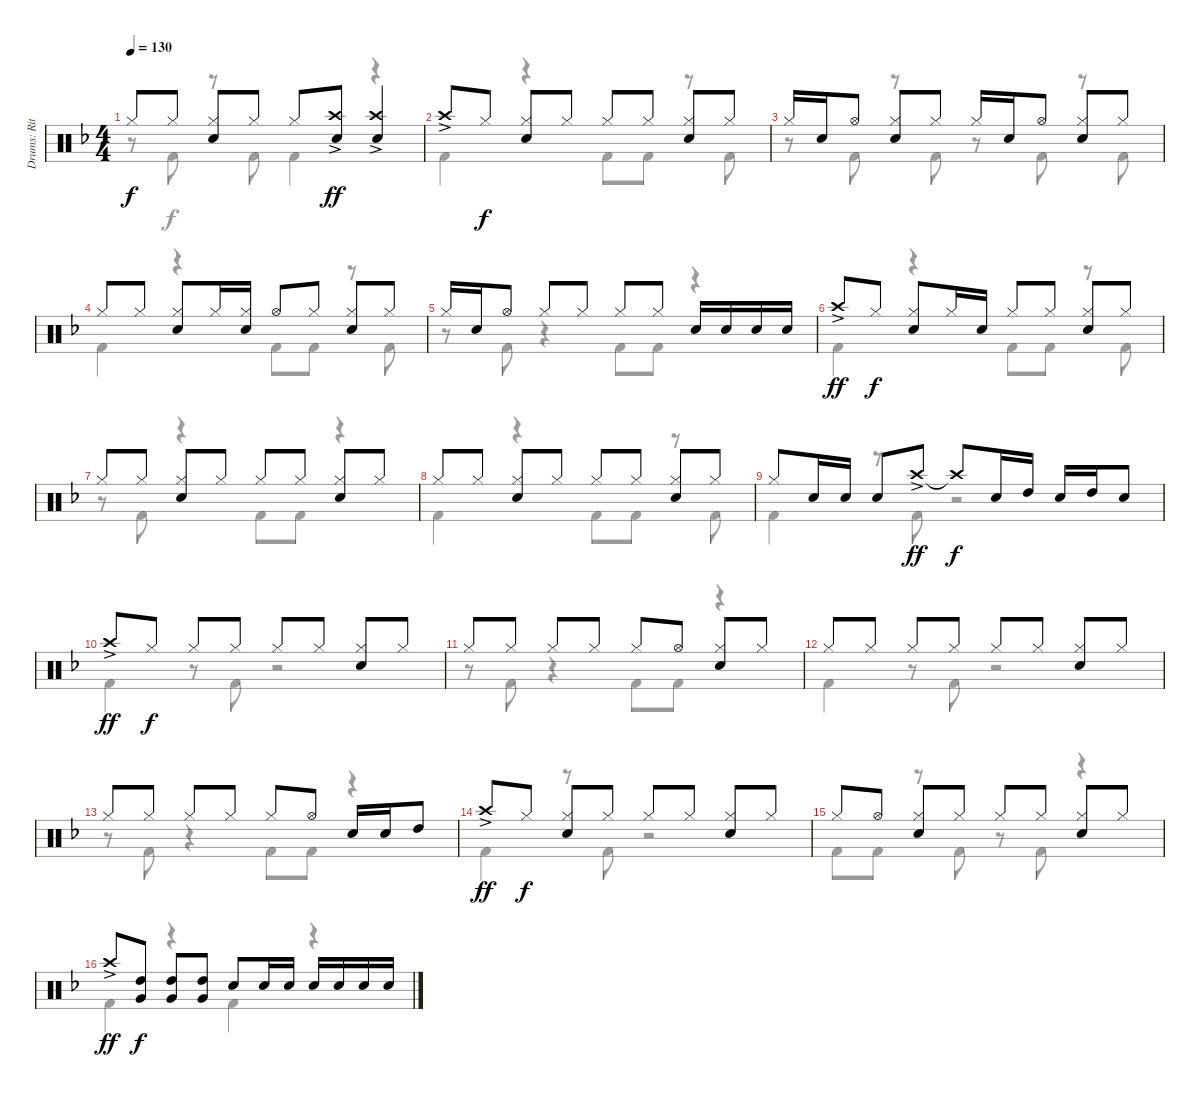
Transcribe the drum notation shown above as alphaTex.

\track ("Drums: Ritsu Tianaka" "Drums: Rit") {instrument percussion}
\staff {score}
\articulation defaults
\voice
\ts (4 4)
\tempo 130
\clef neutral
\ks f "Hi-Hat (closed)".8{dy f} "Hi-Hat (closed)".8
("Hi-Hat (closed)" "Electric Snare (hit)").8 "Hi-Hat (closed)".8 "Hi-Hat (closed)".8 ("Crash high (hit)"{ac} "Electric Snare (hit)").8{dy ff} ("Crash high (hit)"{ac} "Electric Snare (hit)").4 |
"Crash high (hit)"{ac}.8 "Hi-Hat (closed)".8{dy f} ("Hi-Hat (closed)" "Electric Snare (hit)").8 "Hi-Hat (closed)".8 "Hi-Hat (closed)".8 "Hi-Hat (closed)".8 ("Hi-Hat (closed)" "Electric Snare (hit)").8 "Hi-Hat (closed)".8 |
"Hi-Hat (closed)".16 "Electric Snare (hit)".16 "Hi-Hat (open)".8 ("Hi-Hat (closed)" "Electric Snare (hit)").8 "Hi-Hat (closed)".8 "Hi-Hat (closed)".16 "Electric Snare (hit)".16 "Hi-Hat (open)".8 ("Hi-Hat (closed)" "Electric Snare (hit)").8 "Hi-Hat (closed)".8 |
"Hi-Hat (closed)".8 "Hi-Hat (closed)".8 ("Hi-Hat (closed)" "Electric Snare (hit)").8 "Hi-Hat (closed)".16 ("Hi-Hat (closed)" "Electric Snare (hit)").16 "Hi-Hat (open)".8 "Hi-Hat (closed)".8 ("Hi-Hat (closed)" "Electric Snare (hit)").8 "Hi-Hat (closed)".8 |
"Hi-Hat (closed)".16 "Electric Snare (hit)".16 "Hi-Hat (open)".8 "Hi-Hat (closed)".8 "Hi-Hat (closed)".8 "Hi-Hat (closed)".8 "Hi-Hat (closed)".8 "Electric Snare (hit)".16 "Electric Snare (hit)".16 "Electric Snare (hit)".16 "Electric Snare (hit)".16 |
"Crash high (hit)"{ac}.8{dy ff} "Hi-Hat (closed)".8{dy f} ("Hi-Hat (closed)" "Electric Snare (hit)").8 "Hi-Hat (closed)".16 "Electric Snare (hit)".16 "Hi-Hat (closed)".8 "Hi-Hat (closed)".8 ("Hi-Hat (closed)" "Electric Snare (hit)").8 "Hi-Hat (closed)".8 |
"Hi-Hat (closed)".8 "Hi-Hat (closed)".8 ("Hi-Hat (closed)" "Electric Snare (hit)").8 "Hi-Hat (closed)".8 "Hi-Hat (closed)".8 "Hi-Hat (closed)".8 ("Hi-Hat (closed)" "Electric Snare (hit)").8 "Hi-Hat (closed)".8 |
"Hi-Hat (closed)".8 "Hi-Hat (closed)".8 ("Hi-Hat (closed)" "Electric Snare (hit)").8 "Hi-Hat (closed)".8 "Hi-Hat (closed)".8 "Hi-Hat (closed)".8 ("Hi-Hat (closed)" "Electric Snare (hit)").8 "Hi-Hat (closed)".8 |
"Hi-Hat (closed)".8 "Electric Snare (hit)".16 "Electric Snare (hit)".16 "Electric Snare (hit)".8 "Crash high (hit)"{ac}.8{dy ff} "Crash high (hit)"{t}.8{dy f} "Electric Snare (hit)".16 "High Tom (hit)".16 "Electric Snare (hit)".16 "High Tom (hit)".16 "Electric Snare (hit)".8 |
"Crash high (hit)"{ac}.8{dy ff} "Hi-Hat (closed)".8{dy f} "Hi-Hat (closed)".8 "Hi-Hat (closed)".8 "Hi-Hat (closed)".8 "Hi-Hat (closed)".8 ("Hi-Hat (closed)" "Electric Snare (hit)").8 "Hi-Hat (closed)".8 |
"Hi-Hat (closed)".8 "Hi-Hat (closed)".8 "Hi-Hat (closed)".8 "Hi-Hat (closed)".8 "Hi-Hat (closed)".8 "Hi-Hat (open)".8 ("Hi-Hat (closed)" "Electric Snare (hit)").8 "Hi-Hat (closed)".8 |
"Hi-Hat (closed)".8 "Hi-Hat (closed)".8 "Hi-Hat (closed)".8 "Hi-Hat (closed)".8 "Hi-Hat (closed)".8 "Hi-Hat (closed)".8 ("Hi-Hat (closed)" "Electric Snare (hit)").8 "Hi-Hat (closed)".8 |
"Hi-Hat (closed)".8 "Hi-Hat (closed)".8 "Hi-Hat (closed)".8 "Hi-Hat (closed)".8 "Hi-Hat (closed)".8 "Hi-Hat (open)".8 "Electric Snare (hit)".16 "Electric Snare (hit)".16 "High Tom (hit)".8 |
"Crash high (hit)"{ac}.8{dy ff} "Hi-Hat (closed)".8{dy f} ("Hi-Hat (closed)" "Electric Snare (hit)").8 "Hi-Hat (closed)".8 "Hi-Hat (closed)".8 "Hi-Hat (closed)".8 ("Hi-Hat (closed)" "Electric Snare (hit)").8 "Hi-Hat (closed)".8 |
"Hi-Hat (closed)".8 "Hi-Hat (open)".8 ("Hi-Hat (closed)" "Electric Snare (hit)").8 "Hi-Hat (closed)".8 "Hi-Hat (closed)".8 "Hi-Hat (closed)".8 ("Hi-Hat (closed)" "Electric Snare (hit)").8 "Hi-Hat (closed)".8 |
"Crash high (hit)"{ac}.8{dy ff} ("High Tom (hit)" "Very Low Tom (hit)").8{dy f} ("High Tom (hit)" "Very Low Tom (hit)").8 ("High Tom (hit)" "Very Low Tom (hit)").8 "Electric Snare (hit)".8 "Electric Snare (hit)".16 "Electric Snare (hit)".16 "Electric Snare (hit)".16 "Electric Snare (hit)".16 "Electric Snare (hit)".16 "Electric Snare (hit)".16
\voice
\clef neutral
\ottava regular
\simile none
\ks f
r.8{dy f} "Kick (hit) 2".8 r.8 "Kick (hit) 2".8 "Kick (hit) 2".4 r.4 |
"Kick (hit) 2".4 r.4 "Kick (hit) 2".8 "Kick (hit) 2".8 r.8 "Kick (hit) 2".8 |
r.8 "Kick (hit) 2".8 r.8 "Kick (hit) 2".8 r.8 "Kick (hit) 2".8 r.8 "Kick (hit) 2".8 |
"Kick (hit) 2".4 r.4 "Kick (hit) 2".8 "Kick (hit) 2".8 r.8 "Kick (hit) 2".8 |
r.8 "Kick (hit) 2".8 r.4 "Kick (hit) 2".8 "Kick (hit) 2".8 r.4 |
"Kick (hit) 2".4 r.4 "Kick (hit) 2".8 "Kick (hit) 2".8 r.8 "Kick (hit) 2".8 |
r.8 "Kick (hit) 2".8 r.4 "Kick (hit) 2".8 "Kick (hit) 2".8 r.4 |
"Kick (hit) 2".4 r.4 "Kick (hit) 2".8 "Kick (hit) 2".8 r.8 "Kick (hit) 2".8 |
"Kick (hit) 2".4 r.8 "Kick (hit) 2".8 r.2 |
"Kick (hit) 2".4 r.8 "Kick (hit) 2".8 r.2 |
r.8 "Kick (hit) 2".8 r.4 "Kick (hit) 2".8 "Kick (hit) 2".8 r.4 |
"Kick (hit) 2".4 r.8 "Kick (hit) 2".8 r.2 |
r.8 "Kick (hit) 2".8 r.4 "Kick (hit) 2".8 "Kick (hit) 2".8 r.4 |
"Kick (hit) 2".4 r.8 "Kick (hit) 2".8 r.2 |
"Kick (hit) 2".8 "Kick (hit) 2".8 r.8 "Kick (hit) 2".8 r.8 "Kick (hit) 2".8 r.4 |
"Kick (hit) 2".4 r.4 "Kick (hit) 2".4 r.4
